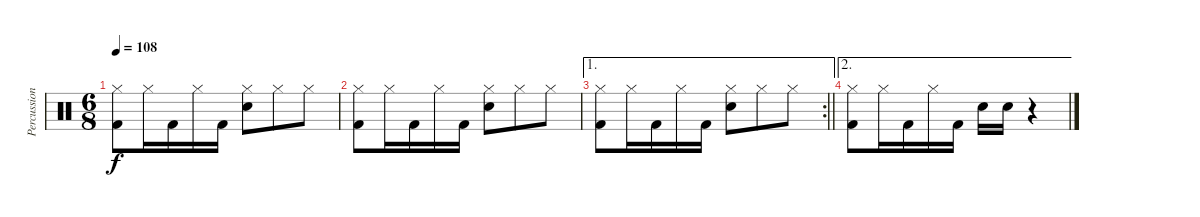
\track ("Percussions" "Percussion") {instrument percussion}
\staff {score}
\articulation defaults
\ts (6 8)
\tempo 108
\clef neutral
\ks c
("Hi-Hat (closed)" "Kick (hit) 2").8{dy f} "Hi-Hat (closed)".16 "Kick (hit) 2".16 "Hi-Hat (closed)".16 "Kick (hit) 2".16 ("Hi-Hat (closed)" "Electric Snare (hit)").8 "Hi-Hat (closed)".8 "Hi-Hat (closed)".8 |
("Hi-Hat (closed)" "Kick (hit) 2").8 "Hi-Hat (closed)".16 "Kick (hit) 2".16 "Hi-Hat (closed)".16 "Kick (hit) 2".16 ("Hi-Hat (closed)" "Electric Snare (hit)").8 "Hi-Hat (closed)".8 "Hi-Hat (closed)".8 |
\ae 1
\rc 2
\barLineRight lightlight
("Hi-Hat (closed)" "Kick (hit) 2").8 "Hi-Hat (closed)".16 "Kick (hit) 2".16 "Hi-Hat (closed)".16 "Kick (hit) 2".16 ("Hi-Hat (closed)" "Electric Snare (hit)").8 "Hi-Hat (closed)".8 "Hi-Hat (closed)".8 |
\ae 2
("Hi-Hat (closed)" "Kick (hit) 2").8 "Hi-Hat (closed)".16 "Kick (hit) 2".16 "Hi-Hat (closed)".16 "Kick (hit) 2".16 "Electric Snare (hit)".16 "Electric Snare (hit)".16 r.4
